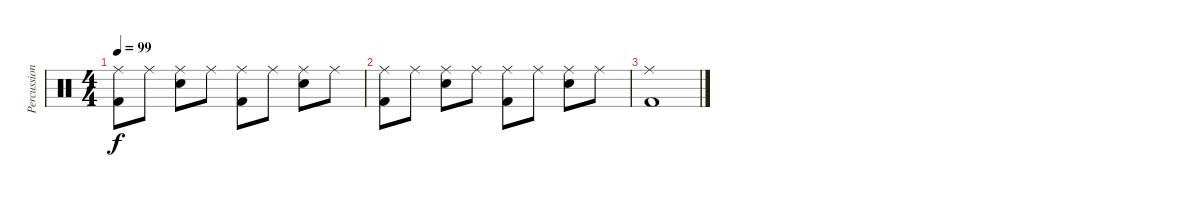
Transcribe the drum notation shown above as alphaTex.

\track ("Percussion" "Percussion") {instrument percussion}
\staff {score}
\articulation defaults
\ts (4 4)
\tempo 99
\clef neutral
\ks c
("Ride (middle)" "Kick (hit) 2").8{dy f} "Ride (middle)".8 ("Ride (middle)" "Electric Snare (hit)").8 "Ride (middle)".8 ("Ride (middle)" "Kick (hit) 2").8 "Ride (middle)".8 ("Ride (middle)" "Electric Snare (hit)").8 "Ride (middle)".8 |
("Ride (middle)" "Kick (hit) 2").8 "Ride (middle)".8 ("Ride (middle)" "Electric Snare (hit)").8 "Ride (middle)".8 ("Ride (middle)" "Kick (hit) 2").8 "Ride (middle)".8 ("Ride (middle)" "Electric Snare (hit)").8 "Ride (middle)".8 |
("Ride (middle)" "Kick (hit) 2").1
